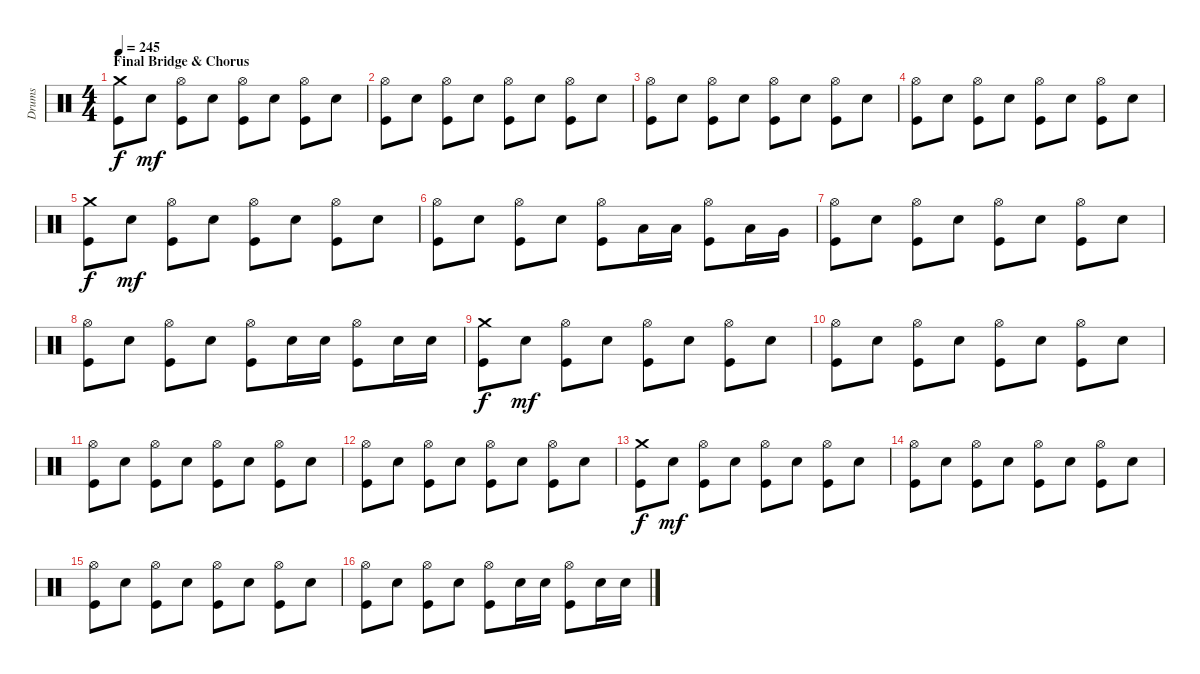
\track ("Drums" "Drums") {instrument percussion}
\staff {score}
\articulation defaults
\ts (4 4)
\section ("" "Final Bridge & Chorus")
\tempo 245
\clef neutral
\ks c
("Crash medium (hit)" "Kick (hit)").8{dy f} "Snare (hit) 2".8{dy mf} ("Hi-Hat (open)" "Kick (hit)").8 "Snare (hit) 2".8 ("Hi-Hat (open)" "Kick (hit)").8 "Snare (hit) 2".8 ("Hi-Hat (open)" "Kick (hit)").8 "Snare (hit) 2".8 |
("Hi-Hat (open)" "Kick (hit)").8 "Snare (hit) 2".8 ("Hi-Hat (open)" "Kick (hit)").8 "Snare (hit) 2".8 ("Hi-Hat (open)" "Kick (hit)").8 "Snare (hit) 2".8 ("Hi-Hat (open)" "Kick (hit)").8 "Snare (hit) 2".8 |
("Hi-Hat (open)" "Kick (hit)").8 "Snare (hit) 2".8 ("Hi-Hat (open)" "Kick (hit)").8 "Snare (hit) 2".8 ("Hi-Hat (open)" "Kick (hit)").8 "Snare (hit) 2".8 ("Hi-Hat (open)" "Kick (hit)").8 "Snare (hit) 2".8 |
("Hi-Hat (open)" "Kick (hit)").8 "Snare (hit) 2".8 ("Hi-Hat (open)" "Kick (hit)").8 "Snare (hit) 2".8 ("Hi-Hat (open)" "Kick (hit)").8 "Snare (hit) 2".8 ("Hi-Hat (open)" "Kick (hit)").8 "Snare (hit) 2".8 |
("Crash medium (hit)" "Kick (hit)").8{dy f} "Snare (hit) 2".8{dy mf} ("Hi-Hat (open)" "Kick (hit)").8 "Snare (hit) 2".8 ("Hi-Hat (open)" "Kick (hit)").8 "Snare (hit) 2".8 ("Hi-Hat (open)" "Kick (hit)").8 "Snare (hit) 2".8 |
("Hi-Hat (open)" "Kick (hit)").8 "Snare (hit) 2".8 ("Hi-Hat (open)" "Kick (hit)").8 "Snare (hit) 2".8 ("Hi-Hat (open)" "Kick (hit)").8 "Low Tom (hit)".16 "Low Tom (hit)".16 ("Hi-Hat (open)" "Kick (hit)").8 "Low Tom (hit)".16 "Very Low Tom (hit)".16 |
("Hi-Hat (open)" "Kick (hit)").8 "Snare (hit) 2".8 ("Hi-Hat (open)" "Kick (hit)").8 "Snare (hit) 2".8 ("Hi-Hat (open)" "Kick (hit)").8 "Snare (hit) 2".8 ("Hi-Hat (open)" "Kick (hit)").8 "Snare (hit) 2".8 |
("Hi-Hat (open)" "Kick (hit)").8 "Snare (hit) 2".8 ("Hi-Hat (open)" "Kick (hit)").8 "Snare (hit) 2".8 ("Hi-Hat (open)" "Kick (hit)").8 "Snare (hit) 2".16 "Snare (hit) 2".16 ("Hi-Hat (open)" "Kick (hit)").8 "Snare (hit) 2".16 "Snare (hit) 2".16 |
("Crash medium (hit)" "Kick (hit)").8{dy f} "Snare (hit) 2".8{dy mf} ("Hi-Hat (open)" "Kick (hit)").8 "Snare (hit) 2".8 ("Hi-Hat (open)" "Kick (hit)").8 "Snare (hit) 2".8 ("Hi-Hat (open)" "Kick (hit)").8 "Snare (hit) 2".8 |
("Hi-Hat (open)" "Kick (hit)").8 "Snare (hit) 2".8 ("Hi-Hat (open)" "Kick (hit)").8 "Snare (hit) 2".8 ("Hi-Hat (open)" "Kick (hit)").8 "Snare (hit) 2".8 ("Hi-Hat (open)" "Kick (hit)").8 "Snare (hit) 2".8 |
("Hi-Hat (open)" "Kick (hit)").8 "Snare (hit) 2".8 ("Hi-Hat (open)" "Kick (hit)").8 "Snare (hit) 2".8 ("Hi-Hat (open)" "Kick (hit)").8 "Snare (hit) 2".8 ("Hi-Hat (open)" "Kick (hit)").8 "Snare (hit) 2".8 |
("Hi-Hat (open)" "Kick (hit)").8 "Snare (hit) 2".8 ("Hi-Hat (open)" "Kick (hit)").8 "Snare (hit) 2".8 ("Hi-Hat (open)" "Kick (hit)").8 "Snare (hit) 2".8 ("Hi-Hat (open)" "Kick (hit)").8 "Snare (hit) 2".8 |
("Crash medium (hit)" "Kick (hit)").8{dy f} "Snare (hit) 2".8{dy mf} ("Hi-Hat (open)" "Kick (hit)").8 "Snare (hit) 2".8 ("Hi-Hat (open)" "Kick (hit)").8 "Snare (hit) 2".8 ("Hi-Hat (open)" "Kick (hit)").8 "Snare (hit) 2".8 |
("Hi-Hat (open)" "Kick (hit)").8 "Snare (hit) 2".8 ("Hi-Hat (open)" "Kick (hit)").8 "Snare (hit) 2".8 ("Hi-Hat (open)" "Kick (hit)").8 "Snare (hit) 2".8 ("Hi-Hat (open)" "Kick (hit)").8 "Snare (hit) 2".8 |
("Hi-Hat (open)" "Kick (hit)").8 "Snare (hit) 2".8 ("Hi-Hat (open)" "Kick (hit)").8 "Snare (hit) 2".8 ("Hi-Hat (open)" "Kick (hit)").8 "Snare (hit) 2".8 ("Hi-Hat (open)" "Kick (hit)").8 "Snare (hit) 2".8 |
("Hi-Hat (open)" "Kick (hit)").8 "Snare (hit) 2".8 ("Hi-Hat (open)" "Kick (hit)").8 "Snare (hit) 2".8 ("Hi-Hat (open)" "Kick (hit)").8 "Snare (hit) 2".16 "Snare (hit) 2".16 ("Hi-Hat (open)" "Kick (hit)").8 "Snare (hit) 2".16 "Snare (hit) 2".16
